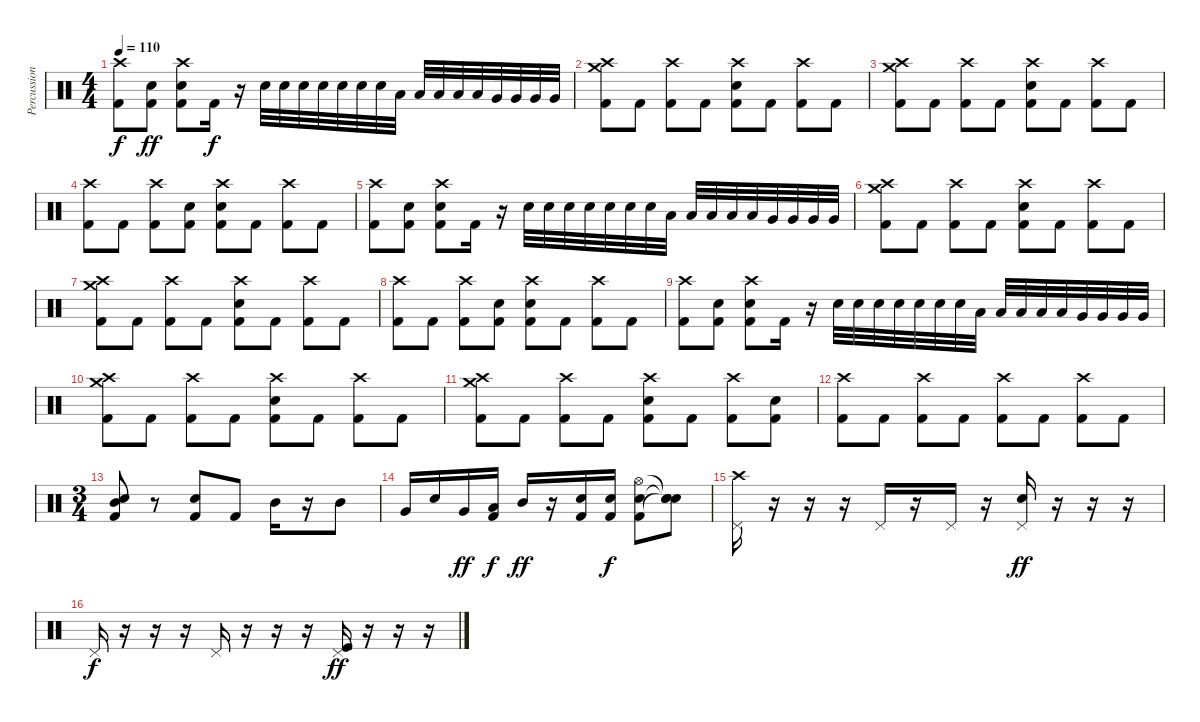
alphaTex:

\track ("Percussion" "Percussion") {instrument percussion}
\staff {score}
\articulation defaults
\ts (4 4)
\tempo 110
\clef neutral
\ks c
("Crash high (hit)" "Kick (hit) 2").8{dy f} ("Electric Snare (hit)" "Kick (hit) 2").8{dy ff} ("Crash high (hit)" "Electric Snare (hit)" "Kick (hit) 2").8 "Kick (hit) 2".16{dy f} r.16 "Electric Snare (hit)".32 "Electric Snare (hit)".32 "Electric Snare (hit)".32 "Electric Snare (hit)".32 "Electric Snare (hit)".32 "Electric Snare (hit)".32 "Electric Snare (hit)".32 "Low Tom (hit)".32 "Low Tom (hit)".32 "Low Tom (hit)".32 "Low Tom (hit)".32 "Low Tom (hit)".32 "Very Low Tom (hit)".32 "Very Low Tom (hit)".32 "Very Low Tom (hit)".32 "Very Low Tom (hit)".32 |
("Crash high (hit)" "Crash medium (hit)" "Kick (hit) 2").8 "Kick (hit) 2".8 ("Crash high (hit)" "Kick (hit) 2").8 "Kick (hit) 2".8 ("Crash high (hit)" "Electric Snare (hit)" "Kick (hit) 2").8 "Kick (hit) 2".8 ("Crash high (hit)" "Kick (hit) 2").8 "Kick (hit) 2".8 |
("Crash high (hit)" "Crash medium (hit)" "Kick (hit) 2").8 "Kick (hit) 2".8 ("Crash high (hit)" "Kick (hit) 2").8 "Kick (hit) 2".8 ("Crash high (hit)" "Electric Snare (hit)" "Kick (hit) 2").8 "Kick (hit) 2".8 ("Crash high (hit)" "Kick (hit) 2").8 "Kick (hit) 2".8 |
("Crash high (hit)" "Kick (hit) 2").8 "Kick (hit) 2".8 ("Crash high (hit)" "Kick (hit) 2").8 ("Electric Snare (hit)" "Kick (hit) 2").8 ("Crash high (hit)" "Electric Snare (hit)" "Kick (hit) 2").8 "Kick (hit) 2".8 ("Crash high (hit)" "Kick (hit) 2").8 "Kick (hit) 2".8 |
("Crash high (hit)" "Kick (hit) 2").8 ("Electric Snare (hit)" "Kick (hit) 2").8 ("Crash high (hit)" "Electric Snare (hit)" "Kick (hit) 2").8 "Kick (hit) 2".16 r.16 "Electric Snare (hit)".32 "Electric Snare (hit)".32 "Electric Snare (hit)".32 "Electric Snare (hit)".32 "Electric Snare (hit)".32 "Electric Snare (hit)".32 "Electric Snare (hit)".32 "Low Tom (hit)".32 "Low Tom (hit)".32 "Low Tom (hit)".32 "Low Tom (hit)".32 "Low Tom (hit)".32 "Very Low Tom (hit)".32 "Very Low Tom (hit)".32 "Very Low Tom (hit)".32 "Very Low Tom (hit)".32 |
("Crash high (hit)" "Crash medium (hit)" "Kick (hit) 2").8 "Kick (hit) 2".8 ("Crash high (hit)" "Kick (hit) 2").8 "Kick (hit) 2".8 ("Crash high (hit)" "Electric Snare (hit)" "Kick (hit) 2").8 "Kick (hit) 2".8 ("Crash high (hit)" "Kick (hit) 2").8 "Kick (hit) 2".8 |
("Crash high (hit)" "Crash medium (hit)" "Kick (hit) 2").8 "Kick (hit) 2".8 ("Crash high (hit)" "Kick (hit) 2").8 "Kick (hit) 2".8 ("Crash high (hit)" "Electric Snare (hit)" "Kick (hit) 2").8 "Kick (hit) 2".8 ("Crash high (hit)" "Kick (hit) 2").8 "Kick (hit) 2".8 |
("Crash high (hit)" "Kick (hit) 2").8 "Kick (hit) 2".8 ("Crash high (hit)" "Kick (hit) 2").8 ("Electric Snare (hit)" "Kick (hit) 2").8 ("Crash high (hit)" "Electric Snare (hit)" "Kick (hit) 2").8 "Kick (hit) 2".8 ("Crash high (hit)" "Kick (hit) 2").8 "Kick (hit) 2".8 |
("Crash high (hit)" "Kick (hit) 2").8 ("Electric Snare (hit)" "Kick (hit) 2").8 ("Crash high (hit)" "Electric Snare (hit)" "Kick (hit) 2").8 "Kick (hit) 2".16 r.16 "Electric Snare (hit)".32 "Electric Snare (hit)".32 "Electric Snare (hit)".32 "Electric Snare (hit)".32 "Electric Snare (hit)".32 "Electric Snare (hit)".32 "Electric Snare (hit)".32 "Low Tom (hit)".32 "Low Tom (hit)".32 "Low Tom (hit)".32 "Low Tom (hit)".32 "Low Tom (hit)".32 "Very Low Tom (hit)".32 "Very Low Tom (hit)".32 "Very Low Tom (hit)".32 "Very Low Tom (hit)".32 |
("Crash high (hit)" "Crash medium (hit)" "Kick (hit) 2").8 "Kick (hit) 2".8 ("Crash high (hit)" "Kick (hit) 2").8 "Kick (hit) 2".8 ("Crash high (hit)" "Electric Snare (hit)" "Kick (hit) 2").8 "Kick (hit) 2".8 ("Crash high (hit)" "Kick (hit) 2").8 "Kick (hit) 2".8 |
("Crash high (hit)" "Crash medium (hit)" "Kick (hit) 2").8 "Kick (hit) 2".8 ("Crash high (hit)" "Kick (hit) 2").8 "Kick (hit) 2".8 ("Crash high (hit)" "Electric Snare (hit)" "Kick (hit) 2").8 "Kick (hit) 2".8 ("Crash high (hit)" "Kick (hit) 2").8 ("Electric Snare (hit)" "Kick (hit) 2").8 |
("Crash high (hit)" "Kick (hit) 2").8 "Kick (hit) 2".8 ("Crash high (hit)" "Kick (hit) 2").8 "Kick (hit) 2".8 ("Crash high (hit)" "Kick (hit) 2").8 "Kick (hit) 2".8 ("Crash high (hit)" "Kick (hit) 2").8 "Kick (hit) 2".8 |
\ts (3 4)
("Electric Snare (hit)" "Mid Tom (hit)" "Kick (hit) 2").8 r.8 ("Electric Snare (hit)" "Kick (hit) 2").8 "Kick (hit) 2".8 "Mid Tom (hit)".16 r.16 "Mid Tom (hit)".8 |
"Very Low Tom (hit)".16 "Electric Snare (hit)".16 "Very Low Tom (hit)".16{dy ff} ("Low Tom (hit)" "Kick (hit) 2").16{dy f} "Mid Tom (hit)".16{dy ff} r.16 ("Electric Snare (hit)" "Kick (hit) 2").16 ("Electric Snare (hit)" "Kick (hit) 2").16{dy f} ("Hi-Hat (open)" "Electric Snare (hit)" "Kick (hit) 2").8 ("Snare (hit)"{t} "Snare (hit)"{t} "Snare (hit)"{t}).8 |
("Pedal Hi-Hat (hit)" "Crash high (hit)").16 r.16 r.16 r.16 "Pedal Hi-Hat (hit)".16 r.16 "Pedal Hi-Hat (hit)".16 r.16 ("Pedal Hi-Hat (hit)" "Electric Snare (hit)").16{dy ff} r.16 r.16 r.16 |
"Pedal Hi-Hat (hit)".16{dy f} r.16 r.16 r.16 "Pedal Hi-Hat (hit)".16 r.16 r.16 r.16 ("Pedal Hi-Hat (hit)" "Kick (hit)").16{dy ff} r.16 r.16 r.16
